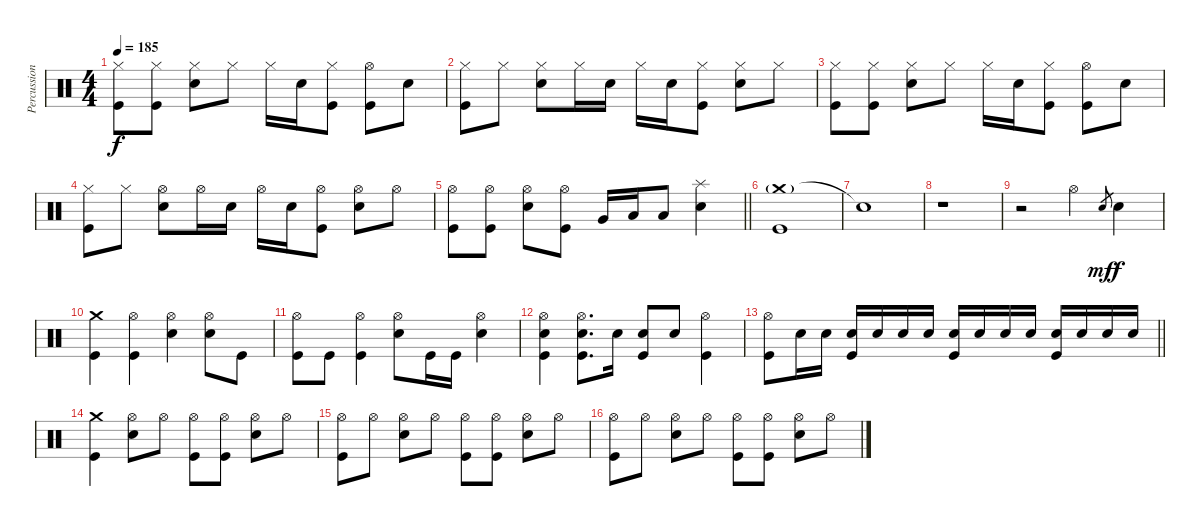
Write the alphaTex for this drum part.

\track ("Percussion" "Percussion") {instrument percussion}
\staff {score}
\articulation defaults
\ts (4 4)
\tempo 185
\clef neutral
\ks c
("Hi-Hat (closed)" "Kick (hit)").8{dy f} ("Hi-Hat (closed)" "Kick (hit)").8 ("Hi-Hat (closed)" "Electric Snare (hit)").8 "Hi-Hat (closed)".8 "Hi-Hat (closed)".16 "Electric Snare (hit)".16 ("Hi-Hat (closed)" "Kick (hit)").8 ("Hi-Hat (open)" "Kick (hit)").8 "Electric Snare (hit)".8 |
("Hi-Hat (closed)" "Kick (hit)").8 "Hi-Hat (closed)".8 ("Hi-Hat (closed)" "Electric Snare (hit)").8 "Hi-Hat (closed)".16 "Electric Snare (hit)".16 "Hi-Hat (closed)".16 "Electric Snare (hit)".16 ("Hi-Hat (closed)" "Kick (hit)").8 ("Hi-Hat (closed)" "Electric Snare (hit)").8 "Hi-Hat (closed)".8 |
("Hi-Hat (closed)" "Kick (hit)").8 ("Hi-Hat (closed)" "Kick (hit)").8 ("Hi-Hat (closed)" "Electric Snare (hit)").8 "Hi-Hat (closed)".8 "Hi-Hat (closed)".16 "Electric Snare (hit)".16 ("Hi-Hat (closed)" "Kick (hit)").8 ("Hi-Hat (open)" "Kick (hit)").8 "Electric Snare (hit)".8 |
("Hi-Hat (closed)" "Kick (hit)").8 "Hi-Hat (closed)".8 ("Hi-Hat (open)" "Electric Snare (hit)").8 "Hi-Hat (open)".16 "Electric Snare (hit)".16 "Hi-Hat (open)".16 "Electric Snare (hit)".16 ("Hi-Hat (open)" "Kick (hit)").8 ("Hi-Hat (open)" "Electric Snare (hit)").8 "Hi-Hat (open)".8 |
\barLineRight lightlight
("Hi-Hat (open)" "Kick (hit)").8 ("Hi-Hat (open)" "Kick (hit)").8 ("Hi-Hat (open)" "Electric Snare (hit)").8 ("Hi-Hat (open)" "Kick (hit)").8 "Very Low Tom (hit)".16 "Low Tom (hit)".16 "Low Tom (hit)".8 ("Splash (hit)" "Electric Snare (hit)").4 |
("Crash medium (hit)"{g} "Kick (hit)").1 |
"Snare (hit)"{t}.1 |
r.1 |
r.2 "Hi-Hat (open)".4 "Electric Snare (hit)".8{gr dy mf} "Electric Snare (hit)".4{dy f} |
("Crash medium (hit)" "Kick (hit)").4 ("Hi-Hat (open)" "Kick (hit)").4 ("Hi-Hat (open)" "Electric Snare (hit)").4 ("Hi-Hat (open)" "Electric Snare (hit)").8 "Kick (hit)".8 |
("Hi-Hat (open)" "Kick (hit)").8 "Kick (hit)".8 ("Hi-Hat (open)" "Kick (hit)").4 ("Hi-Hat (open)" "Electric Snare (hit)").8 "Kick (hit)".16 "Kick (hit)".16 ("Hi-Hat (open)" "Electric Snare (hit)").4 |
("Hi-Hat (open)" "Electric Snare (hit)" "Kick (hit)").4 ("Hi-Hat (open)" "Electric Snare (hit)" "Kick (hit)").8{d} "Electric Snare (hit)".16 ("Electric Snare (hit)" "Kick (hit)").8 "Electric Snare (hit)".8 ("Hi-Hat (open)" "Kick (hit)").4 |
\barLineRight lightlight
("Hi-Hat (open)" "Kick (hit)").8 "Electric Snare (hit)".16{volume 9} "Electric Snare (hit)".16{volume 13} ("Electric Snare (hit)" "Kick (hit)").16 "Electric Snare (hit)".16 "Electric Snare (hit)".16 "Electric Snare (hit)".16 ("Electric Snare (hit)" "Kick (hit)").16 "Electric Snare (hit)".16 "Electric Snare (hit)".16 "Electric Snare (hit)".16 ("Electric Snare (hit)" "Kick (hit)").16 "Electric Snare (hit)".16 "Electric Snare (hit)".16 "Electric Snare (hit)".16 |
("Crash medium (hit)" "Kick (hit)").4 ("Hi-Hat (open)" "Electric Snare (hit)").8 "Hi-Hat (open)".8 ("Hi-Hat (open)" "Kick (hit)").8 ("Hi-Hat (open)" "Kick (hit)").8 ("Hi-Hat (open)" "Electric Snare (hit)").8 "Hi-Hat (open)".8 |
("Hi-Hat (open)" "Kick (hit)").8 "Hi-Hat (open)".8 ("Hi-Hat (open)" "Electric Snare (hit)").8 "Hi-Hat (open)".8 ("Hi-Hat (open)" "Kick (hit)").8 ("Hi-Hat (open)" "Kick (hit)").8 ("Hi-Hat (open)" "Electric Snare (hit)").8 "Hi-Hat (open)".8 |
("Hi-Hat (open)" "Kick (hit)").8 "Hi-Hat (open)".8 ("Hi-Hat (open)" "Electric Snare (hit)").8 "Hi-Hat (open)".8 ("Hi-Hat (open)" "Kick (hit)").8 ("Hi-Hat (open)" "Kick (hit)").8 ("Hi-Hat (open)" "Electric Snare (hit)").8 "Hi-Hat (open)".8
